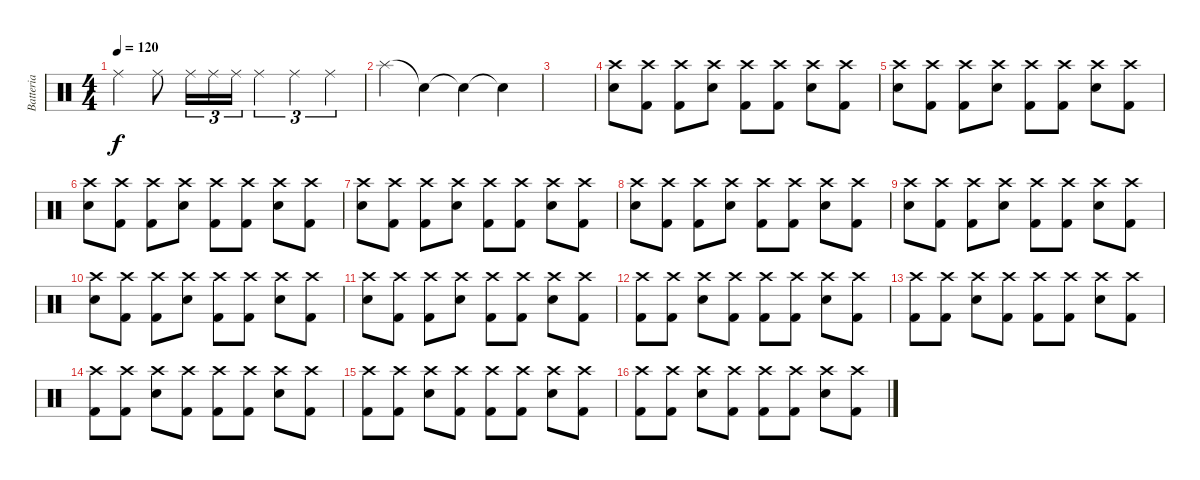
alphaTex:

\track ("Batteria" "Batteria") {instrument percussion}
\staff {score}
\articulation defaults
\ts (4 4)
\tempo 120
\clef neutral
\ks c "Ride (middle)".4{dy f} "Ride (middle)".8 "Ride (middle)".16{tu (3 2)} "Ride (middle)".16{tu (3 2)} "Ride (middle)".16{tu (3 2)} "Ride (middle)".4{tu (3 2)} "Ride (middle)".4{tu (3 2)} "Ride (middle)".4{tu (3 2)}
|
"Splash (hit)".4 "Snare (hit)"{t}.4 "Snare (hit)"{t}.4 "Snare (hit)"{t}.4 |
|
("Snare (hit) 2" "Crash high (hit)").8 ("Kick (hit) 2" "Crash high (hit)").8 ("Crash high (hit)" "Kick (hit) 2").8 ("Snare (hit) 2" "Crash high (hit)").8 ("Kick (hit) 2" "Crash high (hit)").8 ("Kick (hit) 2" "Crash high (hit)").8 ("Snare (hit) 2" "Crash high (hit)").8 ("Crash high (hit)" "Kick (hit) 2").8 |
("Snare (hit) 2" "Crash high (hit)").8 ("Kick (hit) 2" "Crash high (hit)").8 ("Crash high (hit)" "Kick (hit) 2").8 ("Snare (hit) 2" "Crash high (hit)").8 ("Kick (hit) 2" "Crash high (hit)").8 ("Kick (hit) 2" "Crash high (hit)").8 ("Snare (hit) 2" "Crash high (hit)").8 ("Crash high (hit)" "Kick (hit) 2").8 |
("Snare (hit) 2" "Crash high (hit)").8 ("Kick (hit) 2" "Crash high (hit)").8 ("Crash high (hit)" "Kick (hit) 2").8 ("Snare (hit) 2" "Crash high (hit)").8 ("Kick (hit) 2" "Crash high (hit)").8 ("Kick (hit) 2" "Crash high (hit)").8 ("Snare (hit) 2" "Crash high (hit)").8 ("Crash high (hit)" "Kick (hit) 2").8 |
("Snare (hit) 2" "Crash high (hit)").8 ("Kick (hit) 2" "Crash high (hit)").8 ("Crash high (hit)" "Kick (hit) 2").8 ("Snare (hit) 2" "Crash high (hit)").8 ("Kick (hit) 2" "Crash high (hit)").8 ("Kick (hit) 2" "Crash high (hit)").8 ("Snare (hit) 2" "Crash high (hit)").8 ("Crash high (hit)" "Kick (hit) 2").8 |
("Snare (hit) 2" "Crash high (hit)").8 ("Kick (hit) 2" "Crash high (hit)").8 ("Crash high (hit)" "Kick (hit) 2").8 ("Snare (hit) 2" "Crash high (hit)").8 ("Kick (hit) 2" "Crash high (hit)").8 ("Kick (hit) 2" "Crash high (hit)").8 ("Snare (hit) 2" "Crash high (hit)").8 ("Crash high (hit)" "Kick (hit) 2").8 |
("Snare (hit) 2" "Crash high (hit)").8 ("Kick (hit) 2" "Crash high (hit)").8 ("Crash high (hit)" "Kick (hit) 2").8 ("Snare (hit) 2" "Crash high (hit)").8 ("Kick (hit) 2" "Crash high (hit)").8 ("Kick (hit) 2" "Crash high (hit)").8 ("Snare (hit) 2" "Crash high (hit)").8 ("Crash high (hit)" "Kick (hit) 2").8 |
("Snare (hit) 2" "Crash high (hit)").8 ("Kick (hit) 2" "Crash high (hit)").8 ("Crash high (hit)" "Kick (hit) 2").8 ("Snare (hit) 2" "Crash high (hit)").8 ("Kick (hit) 2" "Crash high (hit)").8 ("Kick (hit) 2" "Crash high (hit)").8 ("Snare (hit) 2" "Crash high (hit)").8 ("Crash high (hit)" "Kick (hit) 2").8 |
("Snare (hit) 2" "Crash high (hit)").8 ("Kick (hit) 2" "Crash high (hit)").8 ("Crash high (hit)" "Kick (hit) 2").8 ("Snare (hit) 2" "Crash high (hit)").8 ("Kick (hit) 2" "Crash high (hit)").8 ("Kick (hit) 2" "Crash high (hit)").8 ("Snare (hit) 2" "Crash high (hit)").8 ("Crash high (hit)" "Kick (hit) 2").8 |
("Crash high (hit)" "Kick (hit) 2").8 ("Crash high (hit)" "Kick (hit) 2").8 ("Snare (hit) 2" "Crash high (hit)").8 ("Crash high (hit)" "Kick (hit) 2").8 ("Kick (hit) 2" "Crash high (hit)").8 ("Crash high (hit)" "Kick (hit) 2").8 ("Snare (hit) 2" "Crash high (hit)").8 ("Crash high (hit)" "Kick (hit) 2").8 |
("Crash high (hit)" "Kick (hit) 2").8 ("Crash high (hit)" "Kick (hit) 2").8 ("Snare (hit) 2" "Crash high (hit)").8 ("Crash high (hit)" "Kick (hit) 2").8 ("Kick (hit) 2" "Crash high (hit)").8 ("Crash high (hit)" "Kick (hit) 2").8 ("Snare (hit) 2" "Crash high (hit)").8 ("Crash high (hit)" "Kick (hit) 2").8 |
("Crash high (hit)" "Kick (hit) 2").8 ("Crash high (hit)" "Kick (hit) 2").8 ("Snare (hit) 2" "Crash high (hit)").8 ("Crash high (hit)" "Kick (hit) 2").8 ("Kick (hit) 2" "Crash high (hit)").8 ("Crash high (hit)" "Kick (hit) 2").8 ("Snare (hit) 2" "Crash high (hit)").8 ("Crash high (hit)" "Kick (hit) 2").8 |
("Crash high (hit)" "Kick (hit) 2").8 ("Crash high (hit)" "Kick (hit) 2").8 ("Snare (hit) 2" "Crash high (hit)").8 ("Crash high (hit)" "Kick (hit) 2").8 ("Kick (hit) 2" "Crash high (hit)").8 ("Crash high (hit)" "Kick (hit) 2").8 ("Snare (hit) 2" "Crash high (hit)").8 ("Crash high (hit)" "Kick (hit) 2").8 |
("Crash high (hit)" "Kick (hit) 2").8 ("Crash high (hit)" "Kick (hit) 2").8 ("Snare (hit) 2" "Crash high (hit)").8 ("Crash high (hit)" "Kick (hit) 2").8 ("Kick (hit) 2" "Crash high (hit)").8 ("Crash high (hit)" "Kick (hit) 2").8 ("Snare (hit) 2" "Crash high (hit)").8 ("Crash high (hit)" "Kick (hit) 2").8
